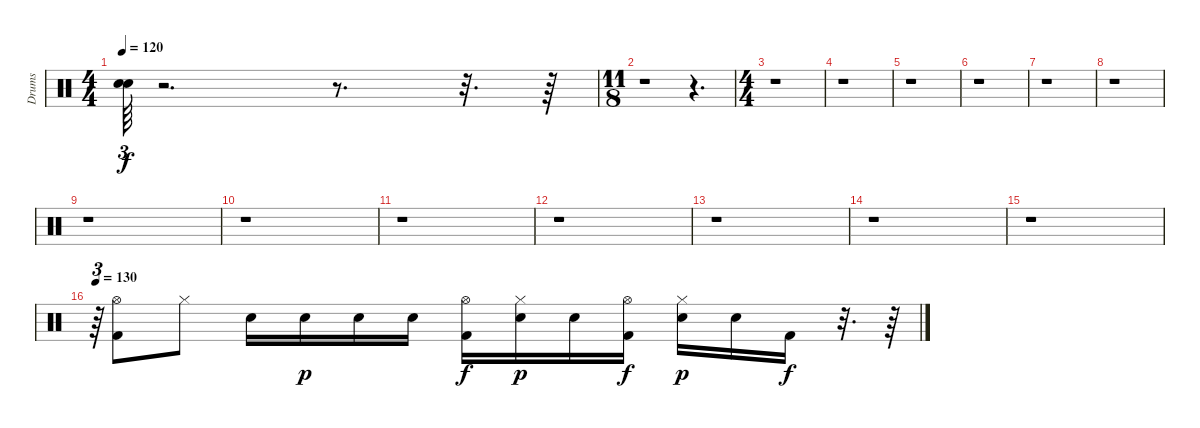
\track ("Drums" "Drums") {instrument percussion}
\staff {score}
\articulation defaults
\ts (4 4)
\tempo 120
\clef neutral
\ks c
("Snare (hit)"{t} "Snare (hit)"{t}).64{tu (3 2) dy f} r.2{d} r.8{d} r.32{d} r.64 |
\ts (11 8)
r.1 r.4{d} |
\ts (4 4)
r.1 |
r.1 |
r.1 |
r.1 |
r.1 |
r.1 |
r.1 |
r.1 |
r.1 |
r.1 |
r.1 |
r.1 |
r.1 |
\tempo 130
r.64{tu (3 2)} ("Kick (hit) 2" "Hi-Hat (open)").8 "Hi-Hat (closed)".8 "Electric Snare (hit)".16 "Electric Snare (hit)".16{dy p} "Electric Snare (hit)".16 "Electric Snare (hit)".16 ("Kick (hit) 2" "Hi-Hat (open)").16{dy f} ("Hi-Hat (closed)" "Electric Snare (hit)").16{dy p} "Electric Snare (hit)".16 ("Kick (hit) 2" "Hi-Hat (open)").16{dy f} ("Hi-Hat (closed)" "Electric Snare (hit)").16{dy p} "Electric Snare (hit)".16 "Kick (hit) 2".16{dy f} r.32{d} r.64
